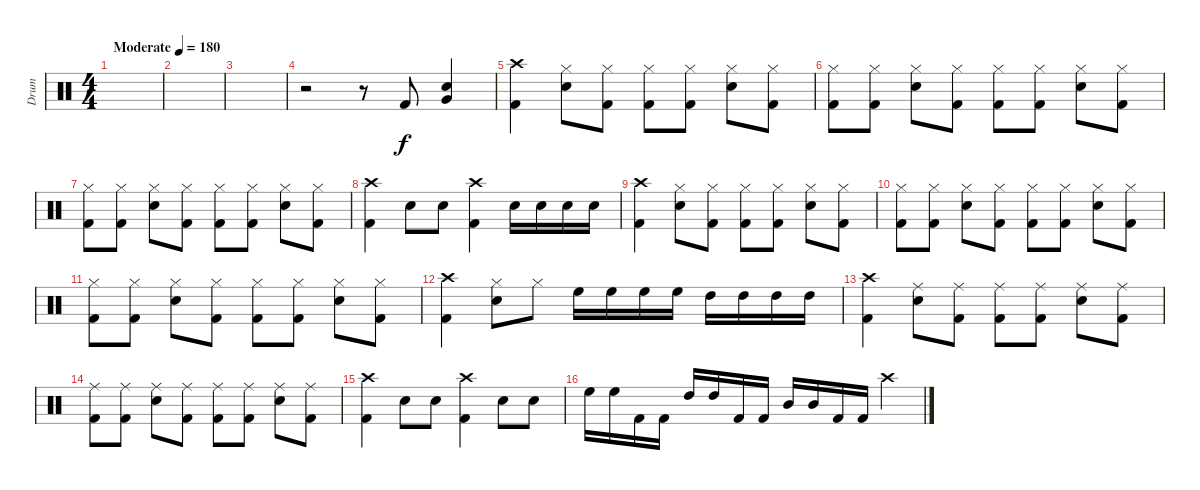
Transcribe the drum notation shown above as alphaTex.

\track ("Drum" "Drum") {instrument percussion}
\staff {score}
\articulation defaults
\ts (4 4)
\tempo (180 "Moderate")
\clef neutral
\ks c
|
|
|
r.2 r.8 "Kick (hit) 2".8 ("Snare (hit) 2" "Very Low Tom (hit)").4 |
("Crash high (hit)" "Kick (hit) 2").4 ("Hi-Hat (closed)" "Snare (hit) 2").8 ("Hi-Hat (closed)" "Kick (hit) 2").8 ("Hi-Hat (closed)" "Kick (hit) 2").8 ("Hi-Hat (closed)" "Kick (hit) 2").8 ("Hi-Hat (closed)" "Snare (hit) 2").8 ("Hi-Hat (closed)" "Kick (hit) 2").8 |
("Hi-Hat (closed)" "Kick (hit) 2").8 ("Hi-Hat (closed)" "Kick (hit) 2").8 ("Hi-Hat (closed)" "Snare (hit) 2").8 ("Hi-Hat (closed)" "Kick (hit) 2").8 ("Hi-Hat (closed)" "Kick (hit) 2").8 ("Hi-Hat (closed)" "Kick (hit) 2").8 ("Hi-Hat (closed)" "Snare (hit) 2").8 ("Hi-Hat (closed)" "Kick (hit) 2").8 |
("Hi-Hat (closed)" "Kick (hit) 2").8 ("Hi-Hat (closed)" "Kick (hit) 2").8 ("Hi-Hat (closed)" "Snare (hit) 2").8 ("Hi-Hat (closed)" "Kick (hit) 2").8 ("Hi-Hat (closed)" "Kick (hit) 2").8 ("Hi-Hat (closed)" "Kick (hit) 2").8 ("Hi-Hat (closed)" "Snare (hit) 2").8 ("Hi-Hat (closed)" "Kick (hit) 2").8 |
("Crash high (hit)" "Kick (hit) 2").4 "Snare (hit) 2".8 "Snare (hit) 2".8 ("Crash high (hit)" "Kick (hit) 2").4 "Snare (hit) 2".16 "Snare (hit) 2".16 "Snare (hit) 2".16 "Snare (hit) 2".16 |
("Crash high (hit)" "Kick (hit) 2").4 ("Hi-Hat (closed)" "Snare (hit) 2").8 ("Hi-Hat (closed)" "Kick (hit) 2").8 ("Hi-Hat (closed)" "Kick (hit) 2").8 ("Hi-Hat (closed)" "Kick (hit) 2").8 ("Hi-Hat (closed)" "Snare (hit) 2").8 ("Hi-Hat (closed)" "Kick (hit) 2").8 |
("Hi-Hat (closed)" "Kick (hit) 2").8 ("Hi-Hat (closed)" "Kick (hit) 2").8 ("Hi-Hat (closed)" "Snare (hit) 2").8 ("Hi-Hat (closed)" "Kick (hit) 2").8 ("Hi-Hat (closed)" "Kick (hit) 2").8 ("Hi-Hat (closed)" "Kick (hit) 2").8 ("Hi-Hat (closed)" "Snare (hit) 2").8 ("Hi-Hat (closed)" "Kick (hit) 2").8 |
("Hi-Hat (closed)" "Kick (hit) 2").8 ("Hi-Hat (closed)" "Kick (hit) 2").8 ("Hi-Hat (closed)" "Snare (hit) 2").8 ("Hi-Hat (closed)" "Kick (hit) 2").8 ("Hi-Hat (closed)" "Kick (hit) 2").8 ("Hi-Hat (closed)" "Kick (hit) 2").8 ("Hi-Hat (closed)" "Snare (hit) 2").8 ("Hi-Hat (closed)" "Kick (hit) 2").8 |
("Crash high (hit)" "Kick (hit) 2").4 ("Hi-Hat (closed)" "Snare (hit) 2").8 "Hi-Hat (closed)".8 "High Floor Tom (hit)".16 "High Floor Tom (hit)".16 "High Floor Tom (hit)".16 "High Floor Tom (hit)".16 "High Tom (hit)".16 "High Tom (hit)".16 "High Tom (hit)".16 "High Tom (hit)".16 |
("Crash high (hit)" "Kick (hit) 2").4 ("Ride (middle)" "Snare (hit) 2").8 ("Ride (middle)" "Kick (hit) 2").8 ("Ride (middle)" "Kick (hit) 2").8 ("Ride (middle)" "Kick (hit) 2").8 ("Ride (middle)" "Snare (hit) 2").8 ("Ride (middle)" "Kick (hit) 2").8 |
("Ride (middle)" "Kick (hit) 2").8 ("Ride (middle)" "Kick (hit) 2").8 ("Ride (middle)" "Snare (hit) 2").8 ("Ride (middle)" "Kick (hit) 2").8 ("Ride (middle)" "Kick (hit) 2").8 ("Ride (middle)" "Kick (hit) 2").8 ("Ride (middle)" "Snare (hit) 2").8 ("Ride (middle)" "Kick (hit) 2").8 |
("Crash high (hit)" "Kick (hit) 2").4 "Snare (hit) 2".8 "Snare (hit) 2".8 ("Crash high (hit)" "Kick (hit) 2").4 "Snare (hit) 2".8 "Snare (hit) 2".8 |
"High Floor Tom (hit)".16 "High Floor Tom (hit)".16 "Kick (hit) 2".16 "Kick (hit) 2".16 "High Tom (hit)".16 "High Tom (hit)".16 "Kick (hit) 2".16 "Kick (hit) 2".16 "Mid Tom (hit)".16 "Mid Tom (hit)".16 "Kick (hit) 2".16 "Kick (hit) 2".16 "Crash high (hit)".4
